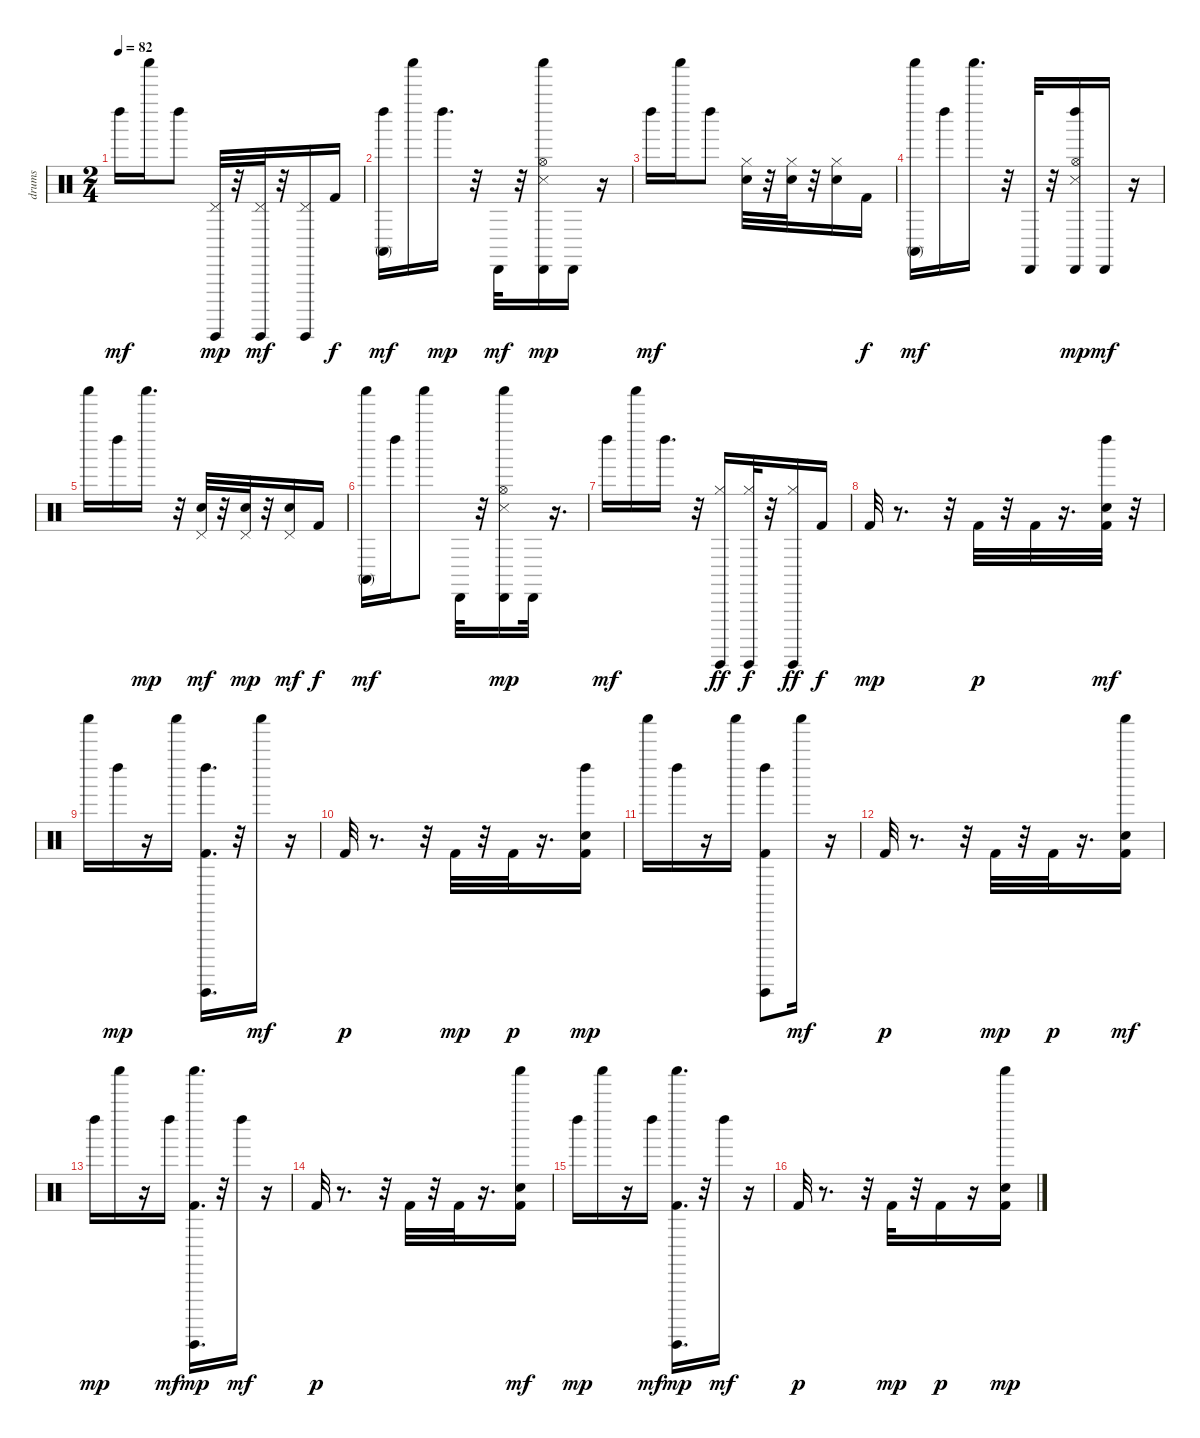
\track ("drums" "drums") {instrument percussion}
\staff {score}
\articulation defaults
\ts (2 4)
\tempo 82
\clef neutral
\ks c "Left Maraca (hit)".16{dy mf} "Shaker (hit)".16 "Left Maraca (hit)".8
("Pedal Hi-Hat (hit)" "Guiro (hit)").32{dy mp} r.32 ("Guiro (hit)" "Pedal Hi-Hat (hit)").32{dy mf} r.32 ("Guiro (hit)" "Pedal Hi-Hat (hit)").16 "Kick (hit) 2".16{dy f} |
("Left Maraca (hit)" "Conga high (mute)").16{dy mf} "Shaker (hit)".16 "Left Maraca (hit)".16{d dy mp} r.32 "Cabasa (hit)".32{dy mf} r.32 ("Cabasa (hit)" "Snare (side stick) 3" "Shaker (hit)" "Hi-Hat (open)").16{dy mp} "Cabasa (hit)".16 r.16 |
"Left Maraca (hit)".16{dy mf} "Shaker (hit)".16 "Left Maraca (hit)".8 ("Hand Clap (hit)" "Hi-Hat (closed)").32 r.32 ("Hi-Hat (closed)" "Hand Clap (hit)").32 r.32 ("Hi-Hat (closed)" "Hand Clap (hit)").16 "Kick (hit) 2".16{dy f} |
("Shaker (hit)" "Conga high (mute)").16{dy mf} "Left Maraca (hit)".16 "Shaker (hit)".16{d} r.32 "Cabasa (hit)".32 r.32 ("Hi-Hat (open)" "Left Maraca (hit)" "Snare (side stick) 3" "Cabasa (hit)").16{dy mp} "Cabasa (hit)".16{dy mf} r.16 |
"Shaker (hit)".16 "Left Maraca (hit)".16 "Shaker (hit)".16{d dy mp} r.32 ("Hand Clap (hit)" "Pedal Hi-Hat (hit)").32{dy mf} r.32 ("Pedal Hi-Hat (hit)" "Hand Clap (hit)").32{dy mp} r.32 ("Pedal Hi-Hat (hit)" "Hand Clap (hit)").16{dy mf} "Kick (hit) 2".16{dy f} |
("Shaker (hit)" "Conga high (mute)").16{dy mf} "Left Maraca (hit)".16 "Shaker (hit)".8 "Cabasa (hit)".32 r.32 ("Snare (side stick) 3" "Shaker (hit)" "Hi-Hat (open)" "Cabasa (hit)").16{dy mp} "Cabasa (hit)".32 r.16{d} |
"Left Maraca (hit)".16{dy mf} "Shaker (hit)".16 "Left Maraca (hit)".16{d} r.32 ("Hi-Hat (closed)" "Guiro (hit)").16{dy ff} ("Guiro (hit)" "Hi-Hat (closed)").32{dy f} r.32 ("Guiro (hit)" "Hi-Hat (closed)").16{dy ff} "Kick (hit) 2".16{dy f} |
"Kick (hit) 2".32{dy mp} r.8{d} r.32 "Kick (hit) 2".32{dy p} r.32 "Kick (hit) 2".32 r.16{d} ("Kick (hit) 2" "Hand Clap (hit)" "Left Maraca (hit)").32{dy mf} r.32 |
"Shaker (hit)".16 "Left Maraca (hit)".16{dy mp} r.16 "Shaker (hit)".16 ("Kick (hit) 2" "Guiro (hit)" "Left Maraca (hit)").16{d} r.32 "Shaker (hit)".16{dy mf} r.16 |
"Kick (hit) 2".32{dy p} r.8{d} r.32 "Kick (hit) 2".32{dy mp} r.32 "Kick (hit) 2".32{dy p} r.16{d} ("Kick (hit) 2" "Hand Clap (hit)" "Left Maraca (hit)").16{dy mp} |
"Shaker (hit)".16 "Left Maraca (hit)".16 r.16 "Shaker (hit)".16 ("Kick (hit) 2" "Guiro (hit)" "Left Maraca (hit)").8 "Shaker (hit)".16{dy mf} r.16 |
"Kick (hit) 2".32{dy p} r.8{d} r.32 "Kick (hit) 2".32{dy mp} r.32 "Kick (hit) 2".32{dy p} r.16{d} ("Kick (hit) 2" "Hand Clap (hit)" "Shaker (hit)").16{dy mf} |
"Left Maraca (hit)".16{dy mp} "Shaker (hit)".16 r.16 "Left Maraca (hit)".16{dy mf} ("Kick (hit) 2" "Guiro (hit)" "Shaker (hit)").16{d dy mp} r.32 "Left Maraca (hit)".16{dy mf} r.16 |
"Kick (hit) 2".32{dy p} r.8{d} r.32 "Kick (hit) 2".32 r.32 "Kick (hit) 2".32 r.16{d} ("Kick (hit) 2" "Hand Clap (hit)" "Shaker (hit)").16{dy mf} |
"Left Maraca (hit)".16{dy mp} "Shaker (hit)".16 r.16 "Left Maraca (hit)".16{dy mf} ("Kick (hit) 2" "Guiro (hit)" "Shaker (hit)").16{d dy mp} r.32 "Left Maraca (hit)".16{dy mf} r.16 |
"Kick (hit) 2".32{dy p} r.8{d} r.32 "Kick (hit) 2".32{dy mp} r.32 "Kick (hit) 2".16{dy p} r.16 ("Kick (hit) 2" "Hand Clap (hit)" "Shaker (hit)").16{dy mp}
